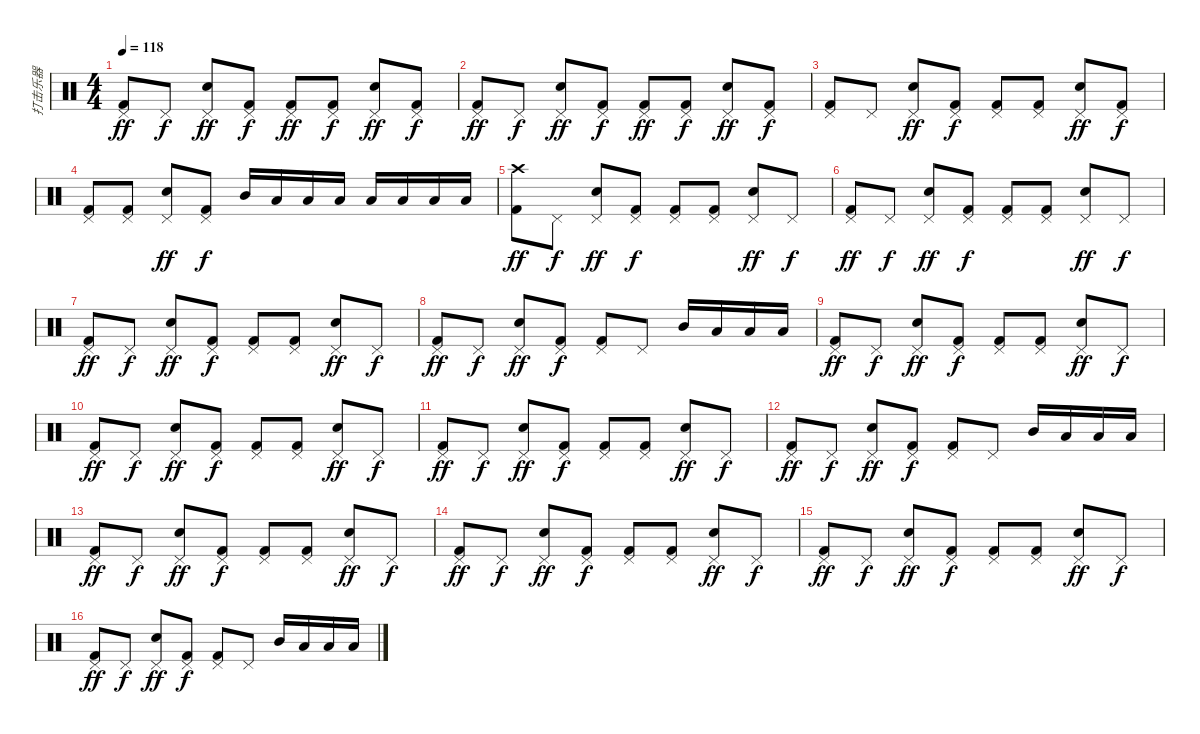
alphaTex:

\track ("打击乐器" "打击乐器") {instrument percussion}
\staff {score}
\articulation defaults
\ts (4 4)
\tempo 118
\clef neutral
\ks c
("Pedal Hi-Hat (hit)" "Kick (hit) 2").8{dy ff} "Pedal Hi-Hat (hit)".8{dy f} ("Pedal Hi-Hat (hit)" "Snare (hit) 2").8{dy ff} ("Pedal Hi-Hat (hit)" "Kick (hit) 2").8{dy f} ("Pedal Hi-Hat (hit)" "Kick (hit) 2").8{dy ff} ("Pedal Hi-Hat (hit)" "Kick (hit) 2").8{dy f} ("Pedal Hi-Hat (hit)" "Snare (hit) 2").8{dy ff} ("Pedal Hi-Hat (hit)" "Kick (hit) 2").8{dy f} |
("Pedal Hi-Hat (hit)" "Kick (hit) 2").8{dy ff} "Pedal Hi-Hat (hit)".8{dy f} ("Pedal Hi-Hat (hit)" "Snare (hit) 2").8{dy ff} ("Pedal Hi-Hat (hit)" "Kick (hit) 2").8{dy f} ("Pedal Hi-Hat (hit)" "Kick (hit) 2").8{dy ff} ("Pedal Hi-Hat (hit)" "Kick (hit) 2").8{dy f} ("Pedal Hi-Hat (hit)" "Snare (hit) 2").8{dy ff} ("Pedal Hi-Hat (hit)" "Kick (hit) 2").8{dy f} |
("Pedal Hi-Hat (hit)" "Kick (hit) 2").8 "Pedal Hi-Hat (hit)".8 ("Pedal Hi-Hat (hit)" "Snare (hit) 2").8{dy ff} ("Pedal Hi-Hat (hit)" "Kick (hit) 2").8{dy f} ("Pedal Hi-Hat (hit)" "Kick (hit) 2").8 ("Pedal Hi-Hat (hit)" "Kick (hit) 2").8 ("Pedal Hi-Hat (hit)" "Snare (hit) 2").8{dy ff} ("Pedal Hi-Hat (hit)" "Kick (hit) 2").8{dy f} |
("Pedal Hi-Hat (hit)" "Kick (hit) 2").8 ("Pedal Hi-Hat (hit)" "Kick (hit) 2").8 ("Pedal Hi-Hat (hit)" "Snare (hit) 2").8{dy ff} ("Pedal Hi-Hat (hit)" "Kick (hit) 2").8{dy f} "Mid Tom (hit)".16 "Low Tom (hit)".16 "Low Tom (hit)".16 "Low Tom (hit)".16 "Low Floor Tom (hit)".16 "Low Floor Tom (hit)".16 "Low Floor Tom (hit)".16 "Low Floor Tom (hit)".16 |
("Crash high (hit)" "Kick (hit) 2").8{dy ff} "Pedal Hi-Hat (hit)".8{dy f} ("Pedal Hi-Hat (hit)" "Snare (hit) 2").8{dy ff} ("Pedal Hi-Hat (hit)" "Kick (hit) 2").8{dy f} ("Pedal Hi-Hat (hit)" "Kick (hit) 2").8 ("Pedal Hi-Hat (hit)" "Kick (hit) 2").8 ("Pedal Hi-Hat (hit)" "Snare (hit) 2").8{dy ff} "Pedal Hi-Hat (hit)".8{dy f} |
("Pedal Hi-Hat (hit)" "Kick (hit) 2").8{dy ff} "Pedal Hi-Hat (hit)".8{dy f} ("Pedal Hi-Hat (hit)" "Snare (hit) 2").8{dy ff} ("Pedal Hi-Hat (hit)" "Kick (hit) 2").8{dy f} ("Pedal Hi-Hat (hit)" "Kick (hit) 2").8 ("Pedal Hi-Hat (hit)" "Kick (hit) 2").8 ("Pedal Hi-Hat (hit)" "Snare (hit) 2").8{dy ff} "Pedal Hi-Hat (hit)".8{dy f} |
("Pedal Hi-Hat (hit)" "Kick (hit) 2").8{dy ff} "Pedal Hi-Hat (hit)".8{dy f} ("Pedal Hi-Hat (hit)" "Snare (hit) 2").8{dy ff} ("Pedal Hi-Hat (hit)" "Kick (hit) 2").8{dy f} ("Pedal Hi-Hat (hit)" "Kick (hit) 2").8 ("Pedal Hi-Hat (hit)" "Kick (hit) 2").8 ("Pedal Hi-Hat (hit)" "Snare (hit) 2").8{dy ff} "Pedal Hi-Hat (hit)".8{dy f} |
("Pedal Hi-Hat (hit)" "Kick (hit) 2").8{dy ff} "Pedal Hi-Hat (hit)".8{dy f} ("Pedal Hi-Hat (hit)" "Snare (hit) 2").8{dy ff} ("Pedal Hi-Hat (hit)" "Kick (hit) 2").8{dy f} ("Pedal Hi-Hat (hit)" "Kick (hit) 2").8 "Pedal Hi-Hat (hit)".8 "Mid Tom (hit)".16 "Low Tom (hit)".16 "Low Floor Tom (hit)".16 "Low Floor Tom (hit)".16 |
("Pedal Hi-Hat (hit)" "Kick (hit) 2").8{dy ff} "Pedal Hi-Hat (hit)".8{dy f} ("Pedal Hi-Hat (hit)" "Snare (hit) 2").8{dy ff} ("Pedal Hi-Hat (hit)" "Kick (hit) 2").8{dy f} ("Pedal Hi-Hat (hit)" "Kick (hit) 2").8 ("Pedal Hi-Hat (hit)" "Kick (hit) 2").8 ("Pedal Hi-Hat (hit)" "Snare (hit) 2").8{dy ff} "Pedal Hi-Hat (hit)".8{dy f} |
("Pedal Hi-Hat (hit)" "Kick (hit) 2").8{dy ff} "Pedal Hi-Hat (hit)".8{dy f} ("Pedal Hi-Hat (hit)" "Snare (hit) 2").8{dy ff} ("Pedal Hi-Hat (hit)" "Kick (hit) 2").8{dy f} ("Pedal Hi-Hat (hit)" "Kick (hit) 2").8 ("Pedal Hi-Hat (hit)" "Kick (hit) 2").8 ("Pedal Hi-Hat (hit)" "Snare (hit) 2").8{dy ff} "Pedal Hi-Hat (hit)".8{dy f} |
("Pedal Hi-Hat (hit)" "Kick (hit) 2").8{dy ff} "Pedal Hi-Hat (hit)".8{dy f} ("Pedal Hi-Hat (hit)" "Snare (hit) 2").8{dy ff} ("Pedal Hi-Hat (hit)" "Kick (hit) 2").8{dy f} ("Pedal Hi-Hat (hit)" "Kick (hit) 2").8 ("Pedal Hi-Hat (hit)" "Kick (hit) 2").8 ("Pedal Hi-Hat (hit)" "Snare (hit) 2").8{dy ff} "Pedal Hi-Hat (hit)".8{dy f} |
("Pedal Hi-Hat (hit)" "Kick (hit) 2").8{dy ff} "Pedal Hi-Hat (hit)".8{dy f} ("Pedal Hi-Hat (hit)" "Snare (hit) 2").8{dy ff} ("Pedal Hi-Hat (hit)" "Kick (hit) 2").8{dy f} ("Pedal Hi-Hat (hit)" "Kick (hit) 2").8 "Pedal Hi-Hat (hit)".8 "Mid Tom (hit)".16 "Low Tom (hit)".16 "Low Floor Tom (hit)".16 "Low Floor Tom (hit)".16 |
("Pedal Hi-Hat (hit)" "Kick (hit) 2").8{dy ff} "Pedal Hi-Hat (hit)".8{dy f} ("Pedal Hi-Hat (hit)" "Snare (hit) 2").8{dy ff} ("Pedal Hi-Hat (hit)" "Kick (hit) 2").8{dy f} ("Pedal Hi-Hat (hit)" "Kick (hit) 2").8 ("Pedal Hi-Hat (hit)" "Kick (hit) 2").8 ("Pedal Hi-Hat (hit)" "Snare (hit) 2").8{dy ff} "Pedal Hi-Hat (hit)".8{dy f} |
("Pedal Hi-Hat (hit)" "Kick (hit) 2").8{dy ff} "Pedal Hi-Hat (hit)".8{dy f} ("Pedal Hi-Hat (hit)" "Snare (hit) 2").8{dy ff} ("Pedal Hi-Hat (hit)" "Kick (hit) 2").8{dy f} ("Pedal Hi-Hat (hit)" "Kick (hit) 2").8 ("Pedal Hi-Hat (hit)" "Kick (hit) 2").8 ("Pedal Hi-Hat (hit)" "Snare (hit) 2").8{dy ff} "Pedal Hi-Hat (hit)".8{dy f} |
("Pedal Hi-Hat (hit)" "Kick (hit) 2").8{dy ff} "Pedal Hi-Hat (hit)".8{dy f} ("Pedal Hi-Hat (hit)" "Snare (hit) 2").8{dy ff} ("Pedal Hi-Hat (hit)" "Kick (hit) 2").8{dy f} ("Pedal Hi-Hat (hit)" "Kick (hit) 2").8 ("Pedal Hi-Hat (hit)" "Kick (hit) 2").8 ("Pedal Hi-Hat (hit)" "Snare (hit) 2").8{dy ff} "Pedal Hi-Hat (hit)".8{dy f} |
("Pedal Hi-Hat (hit)" "Kick (hit) 2").8{dy ff} "Pedal Hi-Hat (hit)".8{dy f} ("Pedal Hi-Hat (hit)" "Snare (hit) 2").8{dy ff} ("Pedal Hi-Hat (hit)" "Kick (hit) 2").8{dy f} ("Pedal Hi-Hat (hit)" "Kick (hit) 2").8 "Pedal Hi-Hat (hit)".8 "Mid Tom (hit)".16 "Low Tom (hit)".16 "Low Floor Tom (hit)".16 "Low Floor Tom (hit)".16
